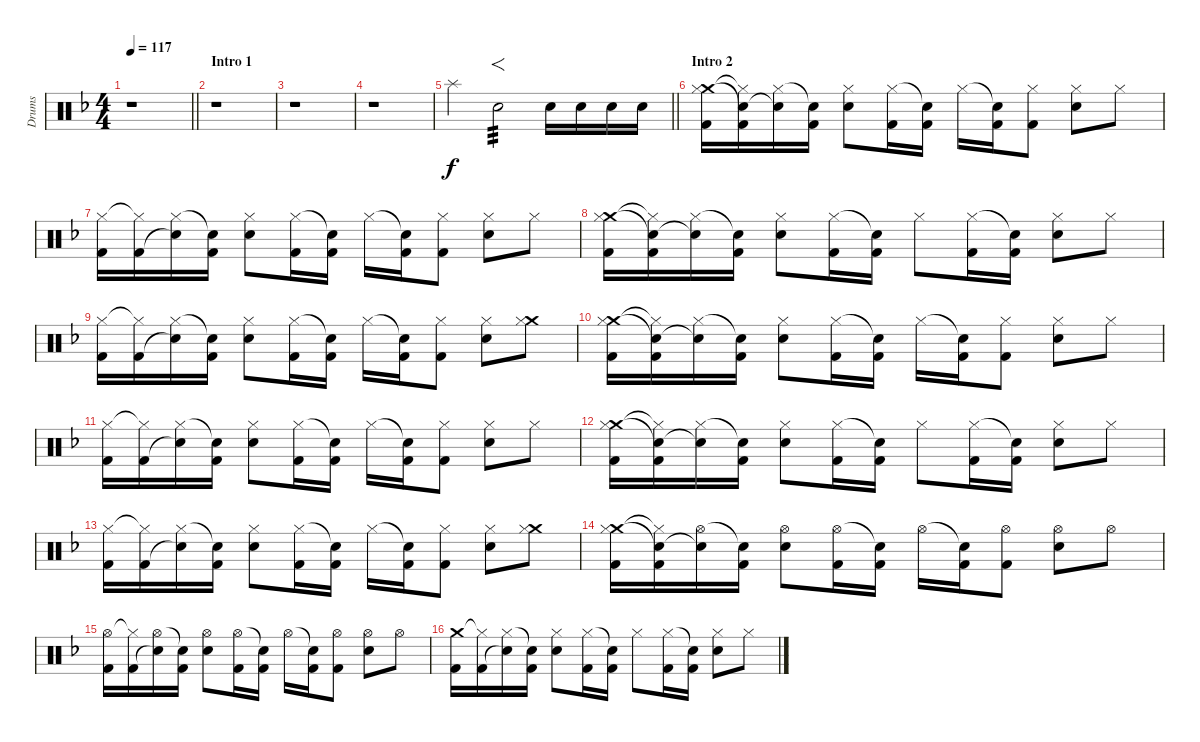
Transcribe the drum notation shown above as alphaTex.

\track ("Drums" "Drums") {instrument percussion}
\staff {score}
\articulation defaults
\ts (4 4)
\tempo 117
\clef neutral
\barLineRight lightlight
\ks dminor
r.1{dy f} |
\section ("" "Intro 1")
r.1 |
r.1 |
r.1 |
\barLineRight lightlight "Splash (hit)".4 "Electric Snare (hit)".2{f tp 3} "Electric Snare (hit)".16 "Electric Snare (hit)".16 "Electric Snare (hit)".16 "Electric Snare (hit)".16
|
\section ("" "Intro 2")
("Crash medium (hit)" "Hi-Hat (closed)" "Kick (hit) 2").16 ("Hi-Hat (closed)"{t} "Snare (hit)"{t} "Kick (hit) 2").16 ("Hi-Hat (closed)" "Snare (hit)"{t}).16 ("Snare (hit)"{t} "Kick (hit) 2").16 ("Hi-Hat (closed)" "Electric Snare (hit)").8 ("Hi-Hat (closed)" "Kick (hit) 2").16 ("Snare (hit)"{t} "Kick (hit) 2").16 "Hi-Hat (closed)".16 ("Snare (hit)"{t} "Kick (hit) 2").16 ("Hi-Hat (closed)" "Kick (hit) 2").8 ("Hi-Hat (closed)" "Electric Snare (hit)").8 "Hi-Hat (closed)".8 |
("Hi-Hat (closed)" "Kick (hit) 2").16 ("Hi-Hat (closed)"{t} "Kick (hit) 2").16 ("Hi-Hat (closed)" "Snare (hit)"{t}).16 ("Snare (hit)"{t} "Kick (hit) 2").16 ("Hi-Hat (closed)" "Electric Snare (hit)").8 ("Hi-Hat (closed)" "Kick (hit) 2").16 ("Snare (hit)"{t} "Kick (hit) 2").16 "Hi-Hat (closed)".16 ("Snare (hit)"{t} "Kick (hit) 2").16 ("Hi-Hat (closed)" "Kick (hit) 2").8 ("Hi-Hat (closed)" "Electric Snare (hit)").8 "Hi-Hat (closed)".8 |
("Crash medium (hit)" "Hi-Hat (closed)" "Kick (hit) 2").16 ("Hi-Hat (closed)"{t} "Snare (hit)"{t} "Kick (hit) 2").16 ("Hi-Hat (closed)" "Snare (hit)"{t}).16 ("Snare (hit)"{t} "Kick (hit) 2").16 ("Hi-Hat (closed)" "Electric Snare (hit)").8 ("Hi-Hat (closed)" "Kick (hit) 2").16 ("Snare (hit)"{t} "Kick (hit) 2").16 "Hi-Hat (closed)".8 ("Hi-Hat (closed)" "Kick (hit) 2").16 ("Snare (hit)"{t} "Kick (hit) 2").16 ("Hi-Hat (closed)" "Electric Snare (hit)").8 "Hi-Hat (closed)".8 |
("Hi-Hat (closed)" "Kick (hit) 2").16 ("Hi-Hat (closed)"{t} "Kick (hit) 2").16 ("Hi-Hat (closed)" "Snare (hit)"{t}).16 ("Snare (hit)"{t} "Kick (hit) 2").16 ("Hi-Hat (closed)" "Electric Snare (hit)").8 ("Hi-Hat (closed)" "Kick (hit) 2").16 ("Snare (hit)"{t} "Kick (hit) 2").16 "Hi-Hat (closed)".16 ("Snare (hit)"{t} "Kick (hit) 2").16 ("Hi-Hat (closed)" "Kick (hit) 2").8 ("Hi-Hat (closed)" "Electric Snare (hit)").8 ("Crash medium (hit)" "Hi-Hat (closed)").8 |
("Crash medium (hit)" "Hi-Hat (closed)" "Kick (hit) 2").16 ("Hi-Hat (closed)"{t} "Snare (hit)"{t} "Kick (hit) 2").16 ("Hi-Hat (closed)" "Snare (hit)"{t}).16 ("Snare (hit)"{t} "Kick (hit) 2").16 ("Hi-Hat (closed)" "Electric Snare (hit)").8 ("Hi-Hat (closed)" "Kick (hit) 2").16 ("Snare (hit)"{t} "Kick (hit) 2").16 "Hi-Hat (closed)".16 ("Snare (hit)"{t} "Kick (hit) 2").16 ("Hi-Hat (closed)" "Kick (hit) 2").8 ("Hi-Hat (closed)" "Electric Snare (hit)").8 "Hi-Hat (closed)".8 |
("Hi-Hat (closed)" "Kick (hit) 2").16 ("Hi-Hat (closed)"{t} "Kick (hit) 2").16 ("Hi-Hat (closed)" "Snare (hit)"{t}).16 ("Snare (hit)"{t} "Kick (hit) 2").16 ("Hi-Hat (closed)" "Electric Snare (hit)").8 ("Hi-Hat (closed)" "Kick (hit) 2").16 ("Snare (hit)"{t} "Kick (hit) 2").16 "Hi-Hat (closed)".16 ("Snare (hit)"{t} "Kick (hit) 2").16 ("Hi-Hat (closed)" "Kick (hit) 2").8 ("Hi-Hat (closed)" "Electric Snare (hit)").8 "Hi-Hat (closed)".8 |
("Crash medium (hit)" "Hi-Hat (closed)" "Kick (hit) 2").16 ("Hi-Hat (closed)"{t} "Snare (hit)"{t} "Kick (hit) 2").16 ("Hi-Hat (closed)" "Snare (hit)"{t}).16 ("Snare (hit)"{t} "Kick (hit) 2").16 ("Hi-Hat (closed)" "Electric Snare (hit)").8 ("Hi-Hat (closed)" "Kick (hit) 2").16 ("Snare (hit)"{t} "Kick (hit) 2").16 "Hi-Hat (closed)".8 ("Hi-Hat (closed)" "Kick (hit) 2").16 ("Snare (hit)"{t} "Kick (hit) 2").16 ("Hi-Hat (closed)" "Electric Snare (hit)").8 "Hi-Hat (closed)".8 |
("Hi-Hat (closed)" "Kick (hit) 2").16 ("Hi-Hat (closed)"{t} "Kick (hit) 2").16 ("Hi-Hat (closed)" "Snare (hit)"{t}).16 ("Snare (hit)"{t} "Kick (hit) 2").16 ("Hi-Hat (closed)" "Electric Snare (hit)").8 ("Hi-Hat (closed)" "Kick (hit) 2").16 ("Snare (hit)"{t} "Kick (hit) 2").16 "Hi-Hat (closed)".16 ("Snare (hit)"{t} "Kick (hit) 2").16 ("Hi-Hat (closed)" "Kick (hit) 2").8 ("Hi-Hat (closed)" "Electric Snare (hit)").8 ("Crash medium (hit)" "Hi-Hat (closed)").8 |
("Crash medium (hit)" "Hi-Hat (closed)" "Kick (hit) 2").16 ("Hi-Hat (closed)"{t} "Snare (hit)"{t} "Kick (hit) 2").16 ("Hi-Hat (open)" "Snare (hit)"{t}).16 ("Snare (hit)"{t} "Kick (hit) 2").16 ("Hi-Hat (open)" "Electric Snare (hit)").8 ("Hi-Hat (open)" "Kick (hit) 2").16 ("Snare (hit)"{t} "Kick (hit) 2").16 "Hi-Hat (open)".16 ("Snare (hit)"{t} "Kick (hit) 2").16 ("Hi-Hat (open)" "Kick (hit) 2").8 ("Hi-Hat (open)" "Electric Snare (hit)").8 "Hi-Hat (open)".8 |
("Hi-Hat (open)" "Kick (hit) 2").16 ("Hi-Hat (closed)"{t} "Kick (hit) 2").16 ("Hi-Hat (open)" "Snare (hit)"{t}).16 ("Snare (hit)"{t} "Kick (hit) 2").16 ("Hi-Hat (open)" "Electric Snare (hit)").8 ("Hi-Hat (open)" "Kick (hit) 2").16 ("Snare (hit)"{t} "Kick (hit) 2").16 "Hi-Hat (open)".16 ("Snare (hit)"{t} "Kick (hit) 2").16 ("Hi-Hat (open)" "Kick (hit) 2").8 ("Hi-Hat (open)" "Electric Snare (hit)").8 "Hi-Hat (open)".8 |
("Crash medium (hit)" "Kick (hit) 2").16 ("Hi-Hat (closed)"{t} "Kick (hit) 2").16 ("Hi-Hat (closed)" "Snare (hit)"{t}).16 ("Snare (hit)"{t} "Kick (hit) 2").16 ("Hi-Hat (closed)" "Electric Snare (hit)").8 ("Hi-Hat (closed)" "Kick (hit) 2").16 ("Snare (hit)"{t} "Kick (hit) 2").16 "Hi-Hat (closed)".8 ("Hi-Hat (closed)" "Kick (hit) 2").16 ("Snare (hit)"{t} "Kick (hit) 2").16 ("Hi-Hat (closed)" "Electric Snare (hit)").8 "Hi-Hat (closed)".8
